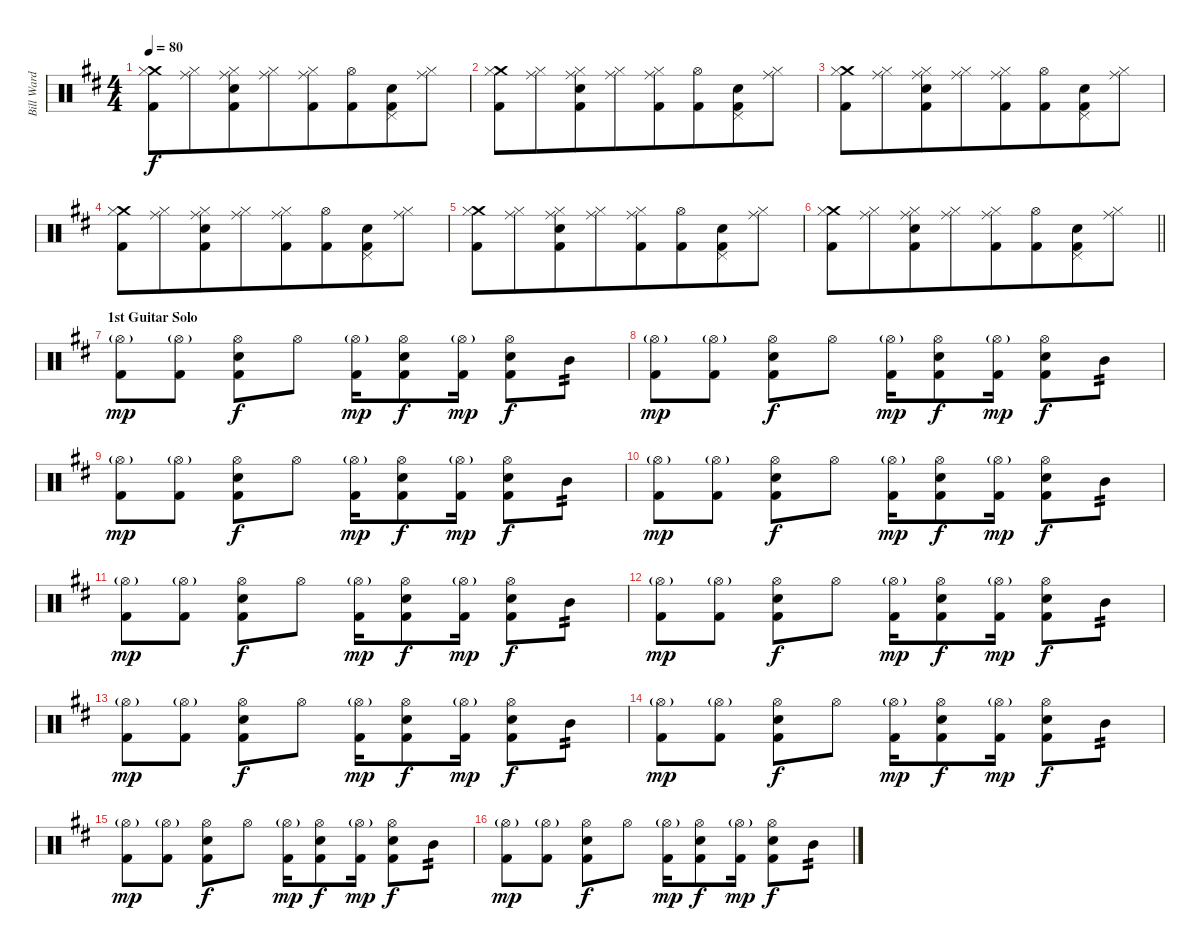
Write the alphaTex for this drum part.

\track ("Bill Ward" "Bill Ward") {instrument percussion}
\staff {score}
\articulation defaults
\ts (4 4)
\tempo 80
\clef neutral
\ks d
("Crash medium (hit)" "Hi-Hat (closed)" "Kick (hit) 2").8{dy f} ("Ride (middle)" "Hi-Hat (closed)").8{beam merge} ("Ride (middle)" "Hi-Hat (closed)" "Snare (hit) 2" "Kick (hit) 2").8 ("Ride (middle)" "Hi-Hat (closed)").8{beam merge} ("Ride (middle)" "Hi-Hat (closed)" "Kick (hit) 2").8 ("Hi-Hat (open)" "Kick (hit) 2").8{beam merge} ("Pedal Hi-Hat (hit)" "Snare (hit) 2" "Kick (hit) 2").8 ("Ride (middle)" "Hi-Hat (closed)").8 |
("Crash medium (hit)" "Hi-Hat (closed)" "Kick (hit) 2").8 ("Ride (middle)" "Hi-Hat (closed)").8{beam merge} ("Ride (middle)" "Hi-Hat (closed)" "Snare (hit) 2" "Kick (hit) 2").8 ("Ride (middle)" "Hi-Hat (closed)").8{beam merge} ("Ride (middle)" "Hi-Hat (closed)" "Kick (hit) 2").8 ("Hi-Hat (open)" "Kick (hit) 2").8{beam merge} ("Pedal Hi-Hat (hit)" "Snare (hit) 2" "Kick (hit) 2").8 ("Ride (middle)" "Hi-Hat (closed)").8 |
("Crash medium (hit)" "Hi-Hat (closed)" "Kick (hit) 2").8 ("Ride (middle)" "Hi-Hat (closed)").8{beam merge} ("Ride (middle)" "Hi-Hat (closed)" "Snare (hit) 2" "Kick (hit) 2").8 ("Ride (middle)" "Hi-Hat (closed)").8{beam merge} ("Ride (middle)" "Hi-Hat (closed)" "Kick (hit) 2").8 ("Hi-Hat (open)" "Kick (hit) 2").8{beam merge} ("Pedal Hi-Hat (hit)" "Snare (hit) 2" "Kick (hit) 2").8 ("Ride (middle)" "Hi-Hat (closed)").8 |
("Crash medium (hit)" "Hi-Hat (closed)" "Kick (hit) 2").8 ("Ride (middle)" "Hi-Hat (closed)").8{beam merge} ("Ride (middle)" "Hi-Hat (closed)" "Snare (hit) 2" "Kick (hit) 2").8 ("Ride (middle)" "Hi-Hat (closed)").8{beam merge} ("Ride (middle)" "Hi-Hat (closed)" "Kick (hit) 2").8 ("Hi-Hat (open)" "Kick (hit) 2").8{beam merge} ("Pedal Hi-Hat (hit)" "Snare (hit) 2" "Kick (hit) 2").8 ("Ride (middle)" "Hi-Hat (closed)").8 |
("Crash medium (hit)" "Hi-Hat (closed)" "Kick (hit) 2").8 ("Ride (middle)" "Hi-Hat (closed)").8{beam merge} ("Ride (middle)" "Hi-Hat (closed)" "Snare (hit) 2" "Kick (hit) 2").8 ("Ride (middle)" "Hi-Hat (closed)").8{beam merge} ("Ride (middle)" "Hi-Hat (closed)" "Kick (hit) 2").8 ("Hi-Hat (open)" "Kick (hit) 2").8{beam merge} ("Pedal Hi-Hat (hit)" "Snare (hit) 2" "Kick (hit) 2").8 ("Ride (middle)" "Hi-Hat (closed)").8 |
\barLineRight lightlight
("Crash medium (hit)" "Hi-Hat (closed)" "Kick (hit) 2").8 ("Ride (middle)" "Hi-Hat (closed)").8{beam merge} ("Ride (middle)" "Hi-Hat (closed)" "Snare (hit) 2" "Kick (hit) 2").8 ("Ride (middle)" "Hi-Hat (closed)").8{beam merge} ("Ride (middle)" "Hi-Hat (closed)" "Kick (hit) 2").8 ("Hi-Hat (open)" "Kick (hit) 2").8{beam merge} ("Pedal Hi-Hat (hit)" "Snare (hit) 2" "Kick (hit) 2").8 ("Ride (middle)" "Hi-Hat (closed)").8 |
\section ("" "1st Guitar Solo")
("Hi-Hat (open)"{g} "Kick (hit) 2").8{dy mp} ("Hi-Hat (open)"{g} "Kick (hit) 2").8 ("Hi-Hat (open)" "Snare (hit) 2" "Kick (hit) 2").8{dy f} "Hi-Hat (open)".8 ("Hi-Hat (open)"{g} "Kick (hit) 2").16{dy mp} ("Hi-Hat (open)" "Snare (hit) 2" "Kick (hit) 2").8{dy f} ("Hi-Hat (open)"{g} "Kick (hit) 2").16{dy mp} ("Hi-Hat (open)" "Snare (hit) 2" "Kick (hit) 2").8{dy f} "Mid Tom (hit)".8{tp 2} |
("Hi-Hat (open)"{g} "Kick (hit) 2").8{dy mp} ("Hi-Hat (open)"{g} "Kick (hit) 2").8 ("Hi-Hat (open)" "Snare (hit) 2" "Kick (hit) 2").8{dy f} "Hi-Hat (open)".8 ("Hi-Hat (open)"{g} "Kick (hit) 2").16{dy mp} ("Hi-Hat (open)" "Snare (hit) 2" "Kick (hit) 2").8{dy f} ("Hi-Hat (open)"{g} "Kick (hit) 2").16{dy mp} ("Hi-Hat (open)" "Snare (hit) 2" "Kick (hit) 2").8{dy f} "Mid Tom (hit)".8{tp 2} |
("Hi-Hat (open)"{g} "Kick (hit) 2").8{dy mp} ("Hi-Hat (open)"{g} "Kick (hit) 2").8 ("Hi-Hat (open)" "Snare (hit) 2" "Kick (hit) 2").8{dy f} "Hi-Hat (open)".8 ("Hi-Hat (open)"{g} "Kick (hit) 2").16{dy mp} ("Hi-Hat (open)" "Snare (hit) 2" "Kick (hit) 2").8{dy f} ("Hi-Hat (open)"{g} "Kick (hit) 2").16{dy mp} ("Hi-Hat (open)" "Snare (hit) 2" "Kick (hit) 2").8{dy f} "Mid Tom (hit)".8{tp 2} |
("Hi-Hat (open)"{g} "Kick (hit) 2").8{dy mp} ("Hi-Hat (open)"{g} "Kick (hit) 2").8 ("Hi-Hat (open)" "Snare (hit) 2" "Kick (hit) 2").8{dy f} "Hi-Hat (open)".8 ("Hi-Hat (open)"{g} "Kick (hit) 2").16{dy mp} ("Hi-Hat (open)" "Snare (hit) 2" "Kick (hit) 2").8{dy f} ("Hi-Hat (open)"{g} "Kick (hit) 2").16{dy mp} ("Hi-Hat (open)" "Snare (hit) 2" "Kick (hit) 2").8{dy f} "Mid Tom (hit)".8{tp 2} |
("Hi-Hat (open)"{g} "Kick (hit) 2").8{dy mp} ("Hi-Hat (open)"{g} "Kick (hit) 2").8 ("Hi-Hat (open)" "Snare (hit) 2" "Kick (hit) 2").8{dy f} "Hi-Hat (open)".8 ("Hi-Hat (open)"{g} "Kick (hit) 2").16{dy mp} ("Hi-Hat (open)" "Snare (hit) 2" "Kick (hit) 2").8{dy f} ("Hi-Hat (open)"{g} "Kick (hit) 2").16{dy mp} ("Hi-Hat (open)" "Snare (hit) 2" "Kick (hit) 2").8{dy f} "Mid Tom (hit)".8{tp 2} |
("Hi-Hat (open)"{g} "Kick (hit) 2").8{dy mp} ("Hi-Hat (open)"{g} "Kick (hit) 2").8 ("Hi-Hat (open)" "Snare (hit) 2" "Kick (hit) 2").8{dy f} "Hi-Hat (open)".8 ("Hi-Hat (open)"{g} "Kick (hit) 2").16{dy mp} ("Hi-Hat (open)" "Snare (hit) 2" "Kick (hit) 2").8{dy f} ("Hi-Hat (open)"{g} "Kick (hit) 2").16{dy mp} ("Hi-Hat (open)" "Snare (hit) 2" "Kick (hit) 2").8{dy f} "Mid Tom (hit)".8{tp 2} |
("Hi-Hat (open)"{g} "Kick (hit) 2").8{dy mp} ("Hi-Hat (open)"{g} "Kick (hit) 2").8 ("Hi-Hat (open)" "Snare (hit) 2" "Kick (hit) 2").8{dy f} "Hi-Hat (open)".8 ("Hi-Hat (open)"{g} "Kick (hit) 2").16{dy mp} ("Hi-Hat (open)" "Snare (hit) 2" "Kick (hit) 2").8{dy f} ("Hi-Hat (open)"{g} "Kick (hit) 2").16{dy mp} ("Hi-Hat (open)" "Snare (hit) 2" "Kick (hit) 2").8{dy f} "Mid Tom (hit)".8{tp 2} |
("Hi-Hat (open)"{g} "Kick (hit) 2").8{dy mp} ("Hi-Hat (open)"{g} "Kick (hit) 2").8 ("Hi-Hat (open)" "Snare (hit) 2" "Kick (hit) 2").8{dy f} "Hi-Hat (open)".8 ("Hi-Hat (open)"{g} "Kick (hit) 2").16{dy mp} ("Hi-Hat (open)" "Snare (hit) 2" "Kick (hit) 2").8{dy f} ("Hi-Hat (open)"{g} "Kick (hit) 2").16{dy mp} ("Hi-Hat (open)" "Snare (hit) 2" "Kick (hit) 2").8{dy f} "Mid Tom (hit)".8{tp 2} |
("Hi-Hat (open)"{g} "Kick (hit) 2").8{dy mp} ("Hi-Hat (open)"{g} "Kick (hit) 2").8 ("Hi-Hat (open)" "Snare (hit) 2" "Kick (hit) 2").8{dy f} "Hi-Hat (open)".8 ("Hi-Hat (open)"{g} "Kick (hit) 2").16{dy mp} ("Hi-Hat (open)" "Snare (hit) 2" "Kick (hit) 2").8{dy f} ("Hi-Hat (open)"{g} "Kick (hit) 2").16{dy mp} ("Hi-Hat (open)" "Snare (hit) 2" "Kick (hit) 2").8{dy f} "Mid Tom (hit)".8{tp 2} |
("Hi-Hat (open)"{g} "Kick (hit) 2").8{dy mp} ("Hi-Hat (open)"{g} "Kick (hit) 2").8 ("Hi-Hat (open)" "Snare (hit) 2" "Kick (hit) 2").8{dy f} "Hi-Hat (open)".8 ("Hi-Hat (open)"{g} "Kick (hit) 2").16{dy mp} ("Hi-Hat (open)" "Snare (hit) 2" "Kick (hit) 2").8{dy f} ("Hi-Hat (open)"{g} "Kick (hit) 2").16{dy mp} ("Hi-Hat (open)" "Snare (hit) 2" "Kick (hit) 2").8{dy f} "Mid Tom (hit)".8{tp 2}
